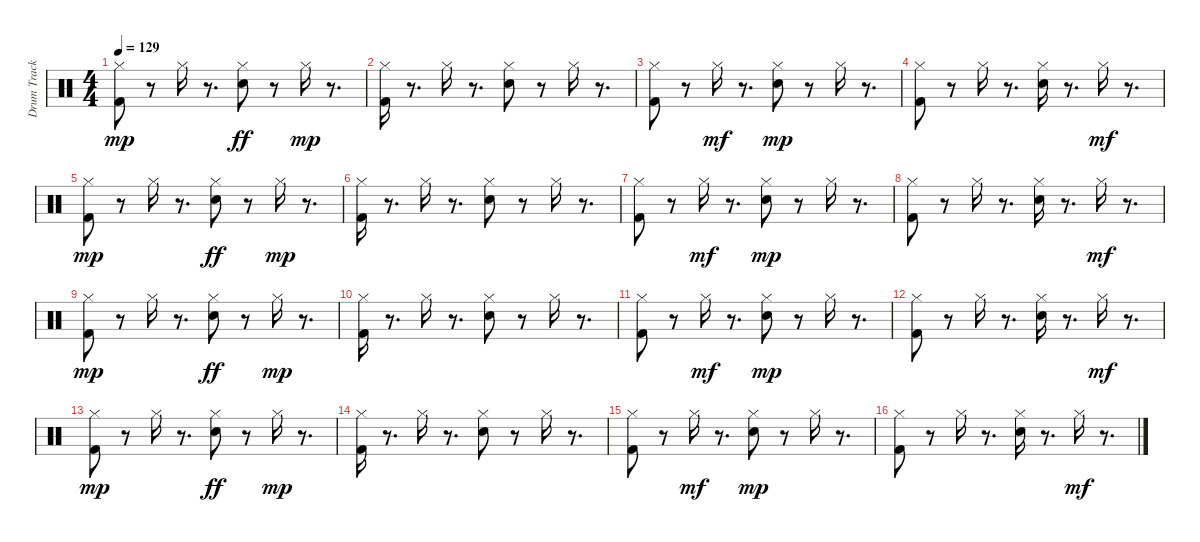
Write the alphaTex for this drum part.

\track ("Drum Track 1" "Drum Track") {instrument percussion}
\staff {score}
\articulation defaults
\ts (4 4)
\tempo 129
\clef neutral
\ks c
("Kick (hit) 2" "Hi-Hat (closed)").8{dy mp} r.8 "Hi-Hat (closed)".16 r.8{d} ("Hi-Hat (closed)" "Snare (hit) 2").8{dy ff} r.8 "Hi-Hat (closed)".16{dy mp} r.8{d} |
("Kick (hit) 2" "Hi-Hat (closed)").16 r.8{d} "Hi-Hat (closed)".16 r.8{d} ("Snare (hit) 2" "Hi-Hat (closed)").8 r.8 "Hi-Hat (closed)".16 r.8{d} |
("Kick (hit) 2" "Hi-Hat (closed)").8 r.8 "Hi-Hat (closed)".16{dy mf} r.8{d} ("Hi-Hat (closed)" "Snare (hit) 2").8{dy mp} r.8 "Hi-Hat (closed)".16 r.8{d} |
("Hi-Hat (closed)" "Kick (hit) 2").8 r.8 "Hi-Hat (closed)".16 r.8{d} ("Hi-Hat (closed)" "Snare (hit) 2").16 r.8{d} "Hi-Hat (closed)".16{dy mf} r.8{d} |
("Kick (hit) 2" "Hi-Hat (closed)").8{dy mp} r.8 "Hi-Hat (closed)".16 r.8{d} ("Hi-Hat (closed)" "Snare (hit) 2").8{dy ff} r.8 "Hi-Hat (closed)".16{dy mp} r.8{d} |
("Kick (hit) 2" "Hi-Hat (closed)").16 r.8{d} "Hi-Hat (closed)".16 r.8{d} ("Snare (hit) 2" "Hi-Hat (closed)").8 r.8 "Hi-Hat (closed)".16 r.8{d} |
("Kick (hit) 2" "Hi-Hat (closed)").8 r.8 "Hi-Hat (closed)".16{dy mf} r.8{d} ("Hi-Hat (closed)" "Snare (hit) 2").8{dy mp} r.8 "Hi-Hat (closed)".16 r.8{d} |
("Hi-Hat (closed)" "Kick (hit) 2").8 r.8 "Hi-Hat (closed)".16 r.8{d} ("Hi-Hat (closed)" "Snare (hit) 2").16 r.8{d} "Hi-Hat (closed)".16{dy mf} r.8{d} |
("Kick (hit) 2" "Hi-Hat (closed)").8{dy mp} r.8 "Hi-Hat (closed)".16 r.8{d} ("Hi-Hat (closed)" "Snare (hit) 2").8{dy ff} r.8 "Hi-Hat (closed)".16{dy mp} r.8{d} |
("Kick (hit) 2" "Hi-Hat (closed)").16 r.8{d} "Hi-Hat (closed)".16 r.8{d} ("Snare (hit) 2" "Hi-Hat (closed)").8 r.8 "Hi-Hat (closed)".16 r.8{d} |
("Kick (hit) 2" "Hi-Hat (closed)").8 r.8 "Hi-Hat (closed)".16{dy mf} r.8{d} ("Hi-Hat (closed)" "Snare (hit) 2").8{dy mp} r.8 "Hi-Hat (closed)".16 r.8{d} |
("Hi-Hat (closed)" "Kick (hit) 2").8 r.8 "Hi-Hat (closed)".16 r.8{d} ("Hi-Hat (closed)" "Snare (hit) 2").16 r.8{d} "Hi-Hat (closed)".16{dy mf} r.8{d} |
("Kick (hit) 2" "Hi-Hat (closed)").8{dy mp} r.8 "Hi-Hat (closed)".16 r.8{d} ("Hi-Hat (closed)" "Snare (hit) 2").8{dy ff} r.8 "Hi-Hat (closed)".16{dy mp} r.8{d} |
("Kick (hit) 2" "Hi-Hat (closed)").16 r.8{d} "Hi-Hat (closed)".16 r.8{d} ("Snare (hit) 2" "Hi-Hat (closed)").8 r.8 "Hi-Hat (closed)".16 r.8{d} |
("Kick (hit) 2" "Hi-Hat (closed)").8 r.8 "Hi-Hat (closed)".16{dy mf} r.8{d} ("Hi-Hat (closed)" "Snare (hit) 2").8{dy mp} r.8 "Hi-Hat (closed)".16 r.8{d} |
("Hi-Hat (closed)" "Kick (hit) 2").8 r.8 "Hi-Hat (closed)".16 r.8{d} ("Hi-Hat (closed)" "Snare (hit) 2").16 r.8{d} "Hi-Hat (closed)".16{dy mf} r.8{d}
